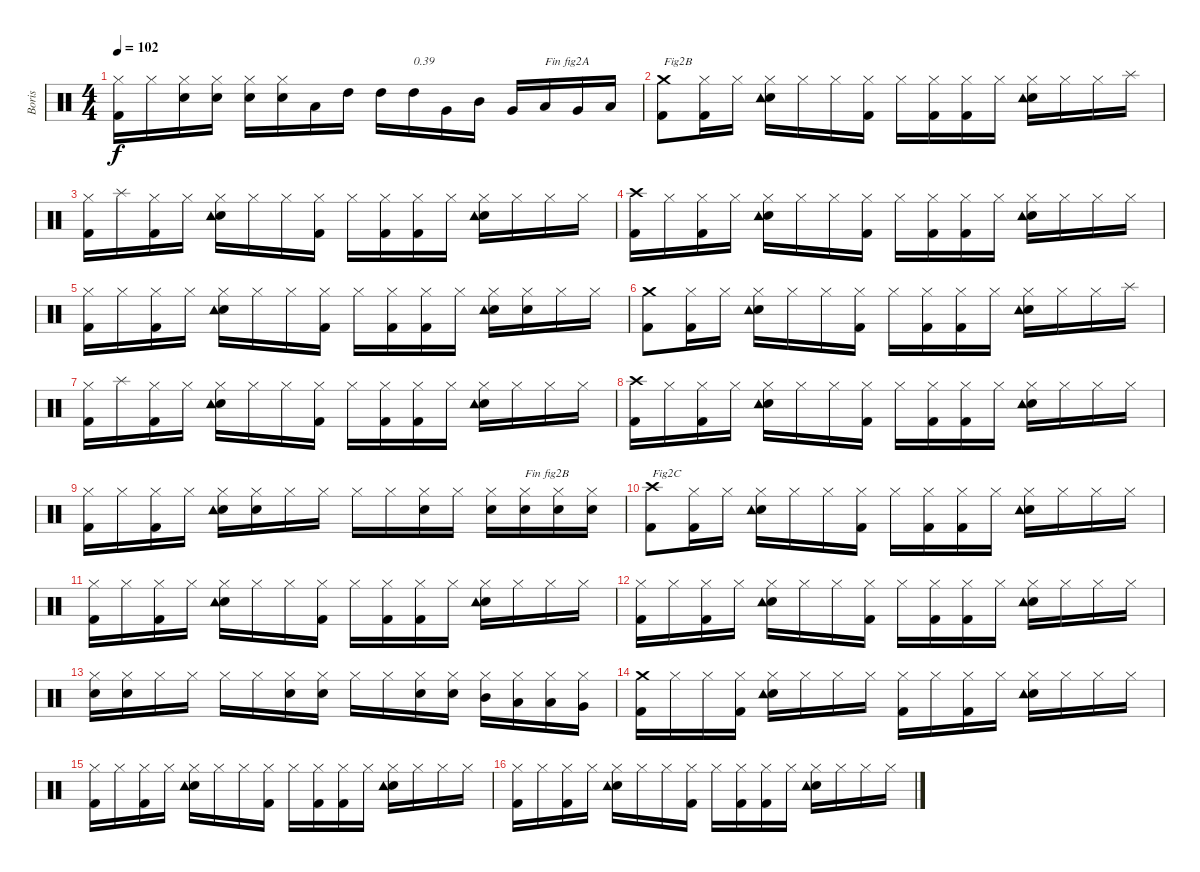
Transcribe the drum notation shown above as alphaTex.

\track ("Boris" "Boris") {instrument percussion}
\staff {score}
\articulation defaults
\ts (4 4)
\tempo 102
\clef neutral
\ks c
("Kick (hit) 2" "Hi-Hat (closed)").16{dy f} "Hi-Hat (closed)".16 ("Electric Snare (hit)" "Hi-Hat (closed)").16 ("Electric Snare (hit)" "Hi-Hat (closed)").16 ("Electric Snare (hit)" "Hi-Hat (closed)").16 ("Electric Snare (hit)" "Hi-Hat (closed)").16 "Low Tom (hit)".16 "High Tom (hit)".16 "High Tom (hit)".16 "High Tom (hit)".16{txt "0.39"} "Very Low Tom (hit)".16 "Mid Tom (hit)".16 "Very Low Tom (hit)".16 "Low Tom (hit)".16{txt "Fin fig2A"} "Very Low Tom (hit)".16 "Low Tom (hit)".16 |
("Kick (hit) 2" "Crash medium (hit)").8{txt "Fig2B"} ("Kick (hit) 2" "Hi-Hat (closed)").16 "Hi-Hat (closed)".16 ("Electric Snare (hit)" "Tambourine (hit)" "Hi-Hat (closed)").16 "Hi-Hat (closed)".16 "Hi-Hat (closed)".16 ("Kick (hit) 2" "Hi-Hat (closed)").16 "Hi-Hat (closed)".16 ("Kick (hit) 2" "Hi-Hat (closed)").16 ("Kick (hit) 2" "Hi-Hat (closed)").16 "Hi-Hat (closed)".16 ("Electric Snare (hit)" "Tambourine (hit)" "Hi-Hat (closed)").16 "Hi-Hat (closed)".16 "Hi-Hat (closed)".16 "Splash (hit)".16 |
("Kick (hit) 2" "Hi-Hat (closed)").16 "Splash (hit)".16 ("Kick (hit) 2" "Hi-Hat (closed)").16 "Hi-Hat (closed)".16 ("Electric Snare (hit)" "Tambourine (hit)" "Hi-Hat (closed)").16 "Hi-Hat (closed)".16 "Hi-Hat (closed)".16 ("Kick (hit) 2" "Hi-Hat (closed)").16 "Hi-Hat (closed)".16 ("Kick (hit) 2" "Hi-Hat (closed)").16 ("Kick (hit) 2" "Hi-Hat (closed)").16 "Hi-Hat (closed)".16 ("Electric Snare (hit)" "Tambourine (hit)" "Hi-Hat (closed)").16 "Hi-Hat (closed)".16 "Hi-Hat (closed)".16 "Hi-Hat (closed)".16 |
("Kick (hit) 2" "Crash high (hit)").16 "Hi-Hat (closed)".16 ("Kick (hit) 2" "Hi-Hat (closed)").16 "Hi-Hat (closed)".16 ("Electric Snare (hit)" "Tambourine (hit)" "Hi-Hat (closed)").16 "Hi-Hat (closed)".16 "Hi-Hat (closed)".16 ("Kick (hit) 2" "Hi-Hat (closed)").16 "Hi-Hat (closed)".16 ("Kick (hit) 2" "Hi-Hat (closed)").16 ("Kick (hit) 2" "Hi-Hat (closed)").16 "Hi-Hat (closed)".16 ("Electric Snare (hit)" "Tambourine (hit)" "Hi-Hat (closed)").16 "Hi-Hat (closed)".16 "Hi-Hat (closed)".16 "Hi-Hat (closed)".16 |
("Kick (hit) 2" "Hi-Hat (closed)").16 "Hi-Hat (closed)".16 ("Kick (hit) 2" "Hi-Hat (closed)").16 "Hi-Hat (closed)".16 ("Electric Snare (hit)" "Tambourine (hit)" "Hi-Hat (closed)").16 "Hi-Hat (closed)".16 "Hi-Hat (closed)".16 ("Kick (hit) 2" "Hi-Hat (closed)").16 "Hi-Hat (closed)".16 ("Kick (hit) 2" "Hi-Hat (closed)").16 ("Kick (hit) 2" "Hi-Hat (closed)").16 "Hi-Hat (closed)".16 ("Electric Snare (hit)" "Tambourine (hit)" "Hi-Hat (closed)").16 ("Electric Snare (hit)" "Hi-Hat (closed)").16 "Hi-Hat (closed)".16 "Hi-Hat (closed)".16 |
("Kick (hit) 2" "Crash medium (hit)").8 ("Kick (hit) 2" "Hi-Hat (closed)").16 "Hi-Hat (closed)".16 ("Electric Snare (hit)" "Tambourine (hit)" "Hi-Hat (closed)").16 "Hi-Hat (closed)".16 "Hi-Hat (closed)".16 ("Kick (hit) 2" "Hi-Hat (closed)").16 "Hi-Hat (closed)".16 ("Kick (hit) 2" "Hi-Hat (closed)").16 ("Kick (hit) 2" "Hi-Hat (closed)").16 "Hi-Hat (closed)".16 ("Electric Snare (hit)" "Tambourine (hit)" "Hi-Hat (closed)").16 "Hi-Hat (closed)".16 "Hi-Hat (closed)".16 "Splash (hit)".16 |
("Kick (hit) 2" "Hi-Hat (closed)").16 "Splash (hit)".16 ("Kick (hit) 2" "Hi-Hat (closed)").16 "Hi-Hat (closed)".16 ("Electric Snare (hit)" "Tambourine (hit)" "Hi-Hat (closed)").16 "Hi-Hat (closed)".16 "Hi-Hat (closed)".16 ("Kick (hit) 2" "Hi-Hat (closed)").16 "Hi-Hat (closed)".16 ("Kick (hit) 2" "Hi-Hat (closed)").16 ("Kick (hit) 2" "Hi-Hat (closed)").16 "Hi-Hat (closed)".16 ("Electric Snare (hit)" "Tambourine (hit)" "Hi-Hat (closed)").16 "Hi-Hat (closed)".16 "Hi-Hat (closed)".16 "Hi-Hat (closed)".16 |
("Kick (hit) 2" "Crash high (hit)").16 "Hi-Hat (closed)".16 ("Kick (hit) 2" "Hi-Hat (closed)").16 "Hi-Hat (closed)".16 ("Electric Snare (hit)" "Tambourine (hit)" "Hi-Hat (closed)").16 "Hi-Hat (closed)".16 "Hi-Hat (closed)".16 ("Kick (hit) 2" "Hi-Hat (closed)").16 "Hi-Hat (closed)".16 ("Kick (hit) 2" "Hi-Hat (closed)").16 ("Kick (hit) 2" "Hi-Hat (closed)").16 "Hi-Hat (closed)".16 ("Electric Snare (hit)" "Tambourine (hit)" "Hi-Hat (closed)").16 "Hi-Hat (closed)".16 "Hi-Hat (closed)".16 "Hi-Hat (closed)".16 |
("Kick (hit) 2" "Hi-Hat (closed)").16 "Hi-Hat (closed)".16 ("Kick (hit) 2" "Hi-Hat (closed)").16 "Hi-Hat (closed)".16 ("Electric Snare (hit)" "Tambourine (hit)" "Hi-Hat (closed)").16 ("Electric Snare (hit)" "Hi-Hat (closed)").16 "Hi-Hat (closed)".16 "Hi-Hat (closed)".16 "Hi-Hat (closed)".16 "Hi-Hat (closed)".16 ("Electric Snare (hit)" "Hi-Hat (closed)").16 "Hi-Hat (closed)".16 ("Electric Snare (hit)" "Hi-Hat (closed)").16 ("Electric Snare (hit)" "Hi-Hat (closed)").16{txt "Fin fig2B"} ("Electric Snare (hit)" "Hi-Hat (closed)").16 ("Electric Snare (hit)" "Hi-Hat (closed)").16 |
("Kick (hit) 2" "Crash high (hit)").8{txt "Fig2C"} ("Kick (hit) 2" "Hi-Hat (closed)").16 "Hi-Hat (closed)".16 ("Electric Snare (hit)" "Tambourine (hit)" "Hi-Hat (closed)").16 "Hi-Hat (closed)".16 "Hi-Hat (closed)".16 ("Kick (hit) 2" "Hi-Hat (closed)").16 "Hi-Hat (closed)".16 ("Kick (hit) 2" "Hi-Hat (closed)").16 ("Kick (hit) 2" "Hi-Hat (closed)").16 "Hi-Hat (closed)".16 ("Electric Snare (hit)" "Tambourine (hit)" "Hi-Hat (closed)").16 "Hi-Hat (closed)".16 "Hi-Hat (closed)".16 "Hi-Hat (closed)".16 |
("Kick (hit) 2" "Hi-Hat (closed)").16 "Hi-Hat (closed)".16 ("Kick (hit) 2" "Hi-Hat (closed)").16 "Hi-Hat (closed)".16 ("Electric Snare (hit)" "Tambourine (hit)" "Hi-Hat (closed)").16 "Hi-Hat (closed)".16 "Hi-Hat (closed)".16 ("Kick (hit) 2" "Hi-Hat (closed)").16 "Hi-Hat (closed)".16 ("Kick (hit) 2" "Hi-Hat (closed)").16 ("Kick (hit) 2" "Hi-Hat (closed)").16 "Hi-Hat (closed)".16 ("Electric Snare (hit)" "Tambourine (hit)" "Hi-Hat (closed)").16 "Hi-Hat (closed)".16 "Hi-Hat (closed)".16 "Hi-Hat (closed)".16 |
("Kick (hit) 2" "Hi-Hat (closed)").16 "Hi-Hat (closed)".16 ("Kick (hit) 2" "Hi-Hat (closed)").16 "Hi-Hat (closed)".16 ("Electric Snare (hit)" "Tambourine (hit)" "Hi-Hat (closed)").16 "Hi-Hat (closed)".16 "Hi-Hat (closed)".16 ("Kick (hit) 2" "Hi-Hat (closed)").16 "Hi-Hat (closed)".16 ("Kick (hit) 2" "Hi-Hat (closed)").16 ("Kick (hit) 2" "Hi-Hat (closed)").16 "Hi-Hat (closed)".16 ("Electric Snare (hit)" "Tambourine (hit)" "Hi-Hat (closed)").16 "Hi-Hat (closed)".16 "Hi-Hat (closed)".16 "Hi-Hat (closed)".16 |
("Electric Snare (hit)" "Hi-Hat (closed)").16 ("Electric Snare (hit)" "Hi-Hat (closed)").16 "Hi-Hat (closed)".16 "Hi-Hat (closed)".16 "Hi-Hat (closed)".16 "Hi-Hat (closed)".16 ("Electric Snare (hit)" "Hi-Hat (closed)").16 ("Electric Snare (hit)" "Hi-Hat (closed)").16 "Hi-Hat (closed)".16 "Hi-Hat (closed)".16 ("Electric Snare (hit)" "Hi-Hat (closed)").16 ("Electric Snare (hit)" "Hi-Hat (closed)").16 ("Mid Tom (hit)" "Hi-Hat (closed)").16 ("Low Tom (hit)" "Hi-Hat (closed)").16 ("Low Tom (hit)" "Hi-Hat (closed)").16 ("Very Low Tom (hit)" "Hi-Hat (closed)").16 |
("Kick (hit) 2" "Crash medium (hit)").16 "Hi-Hat (closed)".16 "Hi-Hat (closed)".16 ("Kick (hit) 2" "Hi-Hat (closed)").16 ("Electric Snare (hit)" "Tambourine (hit)" "Hi-Hat (closed)").16 "Hi-Hat (closed)".16 "Hi-Hat (closed)".16 "Hi-Hat (closed)".16 ("Kick (hit) 2" "Hi-Hat (closed)").16 "Hi-Hat (closed)".16 ("Kick (hit) 2" "Hi-Hat (closed)").16 "Hi-Hat (closed)".16 ("Electric Snare (hit)" "Tambourine (hit)" "Hi-Hat (closed)").16 "Hi-Hat (closed)".16 "Hi-Hat (closed)".16 "Hi-Hat (closed)".16 |
("Kick (hit) 2" "Hi-Hat (closed)").16 "Hi-Hat (closed)".16 ("Kick (hit) 2" "Hi-Hat (closed)").16 "Hi-Hat (closed)".16 ("Electric Snare (hit)" "Tambourine (hit)" "Hi-Hat (closed)").16 "Hi-Hat (closed)".16 "Hi-Hat (closed)".16 ("Kick (hit) 2" "Hi-Hat (closed)").16 "Hi-Hat (closed)".16 ("Kick (hit) 2" "Hi-Hat (closed)").16 ("Kick (hit) 2" "Hi-Hat (closed)").16 "Hi-Hat (closed)".16 ("Electric Snare (hit)" "Tambourine (hit)" "Hi-Hat (closed)").16 "Hi-Hat (closed)".16 "Hi-Hat (closed)".16 "Hi-Hat (closed)".16 |
("Kick (hit) 2" "Hi-Hat (closed)").16 "Hi-Hat (closed)".16 ("Kick (hit) 2" "Hi-Hat (closed)").16 "Hi-Hat (closed)".16 ("Electric Snare (hit)" "Tambourine (hit)" "Hi-Hat (closed)").16 "Hi-Hat (closed)".16 "Hi-Hat (closed)".16 ("Kick (hit) 2" "Hi-Hat (closed)").16 "Hi-Hat (closed)".16 ("Kick (hit) 2" "Hi-Hat (closed)").16 ("Kick (hit) 2" "Hi-Hat (closed)").16 "Hi-Hat (closed)".16 ("Electric Snare (hit)" "Tambourine (hit)" "Hi-Hat (closed)").16 "Hi-Hat (closed)".16 "Hi-Hat (closed)".16 "Hi-Hat (closed)".16
